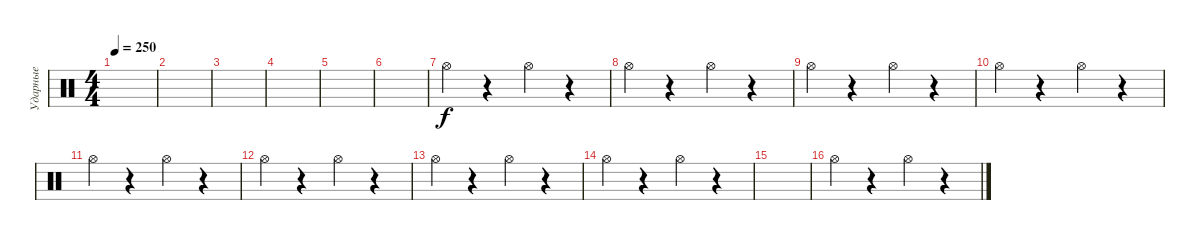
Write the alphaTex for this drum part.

\track ("Ударные" "Ударные") {instrument percussion}
\staff {score}
\articulation defaults
\ts (4 4)
\tempo 250
\clef neutral
\ks c
|
|
|
|
|
|
"Hi-Hat (open)".4 r.4 "Hi-Hat (open)".4 r.4 |
"Hi-Hat (open)".4 r.4 "Hi-Hat (open)".4 r.4 |
"Hi-Hat (open)".4 r.4 "Hi-Hat (open)".4 r.4 |
"Hi-Hat (open)".4 r.4 "Hi-Hat (open)".4 r.4 |
"Hi-Hat (open)".4 r.4 "Hi-Hat (open)".4 r.4 |
"Hi-Hat (open)".4 r.4 "Hi-Hat (open)".4 r.4 |
"Hi-Hat (open)".4 r.4 "Hi-Hat (open)".4 r.4 |
"Hi-Hat (open)".4 r.4 "Hi-Hat (open)".4 r.4 |
|
"Hi-Hat (open)".4 r.4 "Hi-Hat (open)".4 r.4
